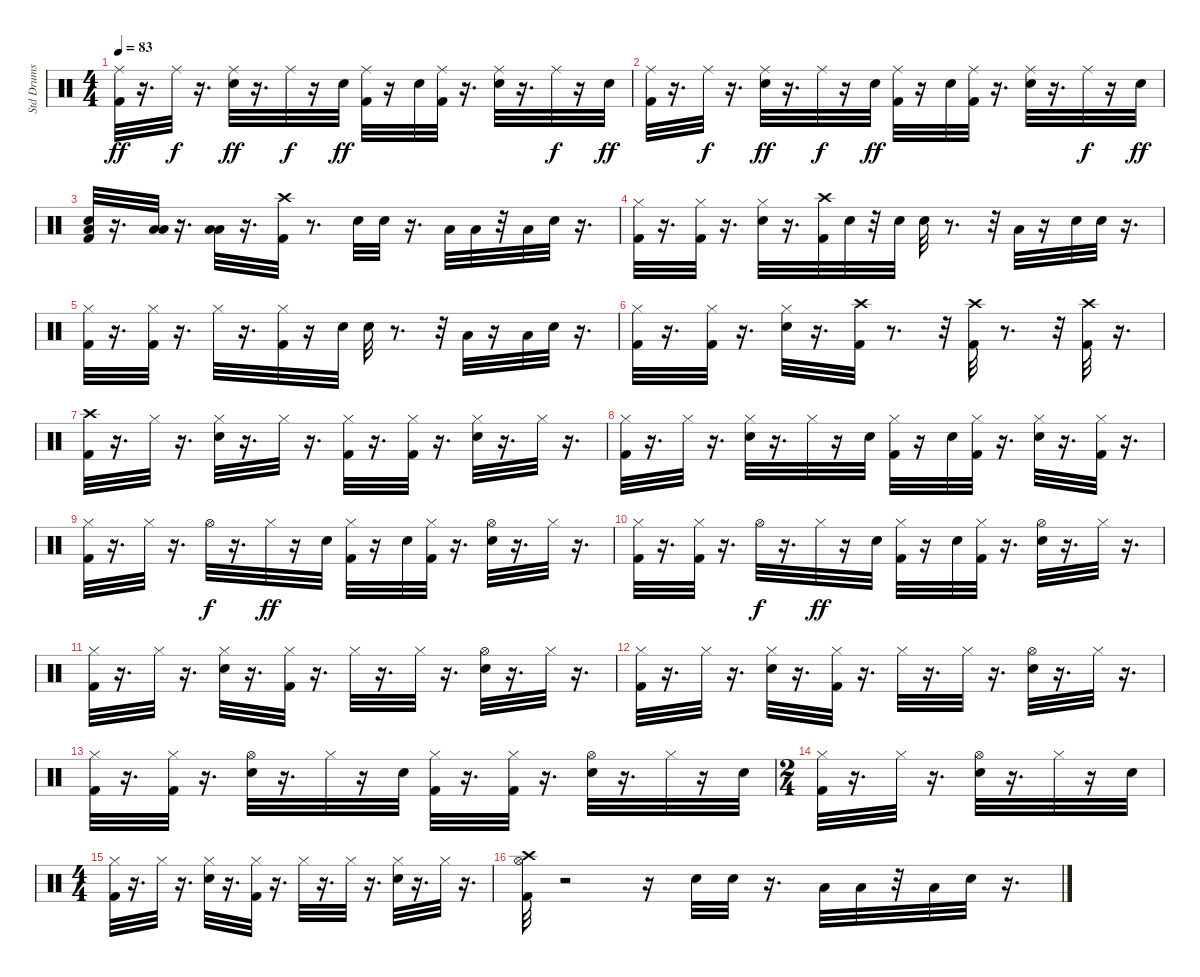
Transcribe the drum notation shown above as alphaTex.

\track ("Std Drums" "Std Drums") {instrument percussion}
\staff {score}
\articulation defaults
\ts (4 4)
\tempo 83
\clef neutral
\ks c
("Kick (hit) 2" "Ride (middle)").32{dy ff} r.16{d} "Ride (middle)".32{dy f} r.16{d} ("Ride (middle)" "Snare (hit) 2").32{dy ff} r.16{d} "Ride (middle)".32{dy f} r.16 "Snare (hit) 2".32{dy ff} ("Kick (hit) 2" "Ride (middle)").32 r.16 "Snare (hit) 2".32 ("Ride (middle)" "Kick (hit) 2").32 r.16{d} ("Snare (hit) 2" "Ride (middle)").32 r.16{d} "Ride (middle)".32{dy f} r.16 "Snare (hit) 2".32{dy ff} |
("Kick (hit) 2" "Ride (middle)").32 r.16{d} "Ride (middle)".32{dy f} r.16{d} ("Ride (middle)" "Snare (hit) 2").32{dy ff} r.16{d} "Ride (middle)".32{dy f} r.16 "Snare (hit) 2".32{dy ff} ("Kick (hit) 2" "Ride (middle)").32 r.16 "Snare (hit) 2".32 ("Ride (middle)" "Kick (hit) 2").32 r.16{d} ("Snare (hit) 2" "Ride (middle)").32 r.16{d} "Ride (middle)".32{dy f} r.16 "Snare (hit) 2".32{dy ff} |
("Kick (hit) 2" "Snare (hit) 2" "Low Tom (hit)").32 r.16{d} ("Low Floor Tom (hit)" "Low Tom (hit)").32 r.16{d} ("Low Floor Tom (hit)" "Low Tom (hit)").32 r.16{d} ("Kick (hit) 2" "Crash high (hit)").32 r.8{d} "Snare (hit) 2".32 "Snare (hit) 2".32 r.16{d} "Low Tom (hit)".32 "Low Tom (hit)".32 r.32 "Low Tom (hit)".32 "Snare (hit) 2".32 r.16{d} |
("Hi-Hat (closed)" "Kick (hit) 2").32 r.16{d} ("Kick (hit) 2" "Hi-Hat (closed)").32 r.16{d} ("Snare (hit) 2" "Hi-Hat (closed)").32 r.16{d} ("Crash high (hit)" "Kick (hit) 2").32 "Snare (hit) 2".32 r.32 "Snare (hit) 2".32 "Snare (hit) 2".32 r.8{d} r.32 "Low Tom (hit)".32 r.16 "Snare (hit) 2".32 "Snare (hit) 2".32 r.16{d} |
("Hi-Hat (closed)" "Kick (hit) 2").32 r.16{d} ("Kick (hit) 2" "Hi-Hat (closed)").32 r.16{d} "Hi-Hat (closed)".32 r.16{d} ("Hi-Hat (closed)" "Kick (hit) 2").32 r.16 "Snare (hit) 2".32 "Snare (hit) 2".32 r.8{d} r.32 "Low Tom (hit)".32 r.16 "Low Floor Tom (hit)".32 "Snare (hit) 2".32 r.16{d} |
("Hi-Hat (closed)" "Kick (hit) 2").32 r.16{d} ("Hi-Hat (closed)" "Kick (hit) 2").32 r.16{d} ("Hi-Hat (closed)" "Snare (hit) 2").32 r.16{d} ("Crash high (hit)" "Kick (hit) 2").32 r.8{d} r.32 ("Kick (hit) 2" "Crash high (hit)").32 r.8{d} r.32 ("Crash high (hit)" "Kick (hit) 2").32 r.16{d} |
("Kick (hit) 2" "Crash high (hit)").32 r.16{d} "Hi-Hat (closed)".32 r.16{d} ("Hi-Hat (closed)" "Snare (hit) 2").32 r.16{d} "Hi-Hat (closed)".32 r.16{d} ("Kick (hit) 2" "Hi-Hat (closed)").32 r.16{d} ("Kick (hit) 2" "Hi-Hat (closed)").32 r.16{d} ("Hi-Hat (closed)" "Snare (hit) 2").32 r.16{d} "Hi-Hat (closed)".32 r.16{d} |
("Kick (hit) 2" "Hi-Hat (closed)").32 r.16{d} "Hi-Hat (closed)".32 r.16{d} ("Hi-Hat (closed)" "Snare (hit) 2").32 r.16{d} "Hi-Hat (closed)".32 r.16 "Snare (hit) 2".32 ("Kick (hit) 2" "Hi-Hat (closed)").32 r.16 "Snare (hit) 2".32 ("Hi-Hat (closed)" "Kick (hit) 2").32 r.16{d} ("Hi-Hat (closed)" "Snare (hit) 2").32 r.16{d} ("Kick (hit) 2" "Hi-Hat (closed)").32 r.16{d} |
("Kick (hit) 2" "Hi-Hat (closed)").32 r.16{d} "Hi-Hat (closed)".32 r.16{d} "Hi-Hat (open)".32{dy f} r.16{d} "Hi-Hat (closed)".32{dy ff} r.16 "Snare (hit) 2".32 ("Kick (hit) 2" "Hi-Hat (closed)").32 r.16 "Snare (hit) 2".32 ("Hi-Hat (closed)" "Kick (hit) 2").32 r.16{d} ("Snare (hit) 2" "Hi-Hat (open)").32 r.16{d} "Hi-Hat (closed)".32 r.16{d} |
("Kick (hit) 2" "Hi-Hat (closed)").32 r.16{d} ("Hi-Hat (closed)" "Kick (hit) 2").32 r.16{d} "Hi-Hat (open)".32{dy f} r.16{d} "Hi-Hat (closed)".32{dy ff} r.16 "Snare (hit) 2".32 ("Hi-Hat (closed)" "Kick (hit) 2").32 r.16 "Snare (hit) 2".32 ("Hi-Hat (closed)" "Kick (hit) 2").32 r.16{d} ("Hi-Hat (open)" "Snare (hit) 2").32 r.16{d} "Hi-Hat (closed)".32 r.16{d} |
("Kick (hit) 2" "Hi-Hat (closed)").32 r.16{d} "Hi-Hat (closed)".32 r.16{d} ("Snare (hit) 2" "Hi-Hat (closed)").32 r.16{d} ("Hi-Hat (closed)" "Kick (hit) 2").32 r.16{d} "Hi-Hat (closed)".32 r.16{d} "Hi-Hat (closed)".32 r.16{d} ("Snare (hit) 2" "Hi-Hat (open)").32 r.16{d} "Hi-Hat (closed)".32 r.16{d} |
("Hi-Hat (closed)" "Kick (hit) 2").32 r.16{d} "Hi-Hat (closed)".32 r.16{d} ("Snare (hit) 2" "Hi-Hat (closed)").32 r.16{d} ("Kick (hit) 2" "Hi-Hat (closed)").32 r.16{d} "Hi-Hat (closed)".32 r.16{d} "Hi-Hat (closed)".32 r.16{d} ("Snare (hit) 2" "Hi-Hat (open)").32 r.16{d} "Hi-Hat (closed)".32 r.16{d} |
("Hi-Hat (closed)" "Kick (hit) 2").32 r.16{d} ("Kick (hit) 2" "Hi-Hat (closed)").32 r.16{d} ("Hi-Hat (open)" "Snare (hit) 2").32 r.16{d} "Hi-Hat (closed)".32 r.16 "Snare (hit) 2".32 ("Hi-Hat (closed)" "Kick (hit) 2").32 r.16{d} ("Kick (hit) 2" "Hi-Hat (closed)").32 r.16{d} ("Snare (hit) 2" "Hi-Hat (open)").32 r.16{d} "Hi-Hat (closed)".32 r.16 "Snare (hit) 2".32 |
\ts (2 4)
("Hi-Hat (closed)" "Kick (hit) 2").32 r.16{d} "Hi-Hat (closed)".32 r.16{d} ("Hi-Hat (open)" "Snare (hit) 2").32 r.16{d} "Hi-Hat (closed)".32 r.16 "Snare (hit) 2".32 |
\ts (4 4)
("Kick (hit) 2" "Hi-Hat (closed)").32 r.16{d} "Hi-Hat (closed)".32 r.16{d} ("Snare (hit) 2" "Hi-Hat (closed)").32 r.16{d} ("Hi-Hat (closed)" "Kick (hit) 2").32 r.16{d} "Hi-Hat (closed)".32 r.16{d} "Hi-Hat (closed)".32 r.16{d} ("Snare (hit) 2" "Hi-Hat (closed)").32 r.16{d} "Hi-Hat (closed)".32 r.16{d} |
("Crash high (hit)" "Kick (hit) 2" "Hi-Hat (open)").32 r.2 r.16 "Snare (hit) 2".32 "Snare (hit) 2".32 r.16{d} "Low Tom (hit)".32 "Low Tom (hit)".32 r.32 "Low Tom (hit)".32 "Snare (hit) 2".32 r.16{d}
